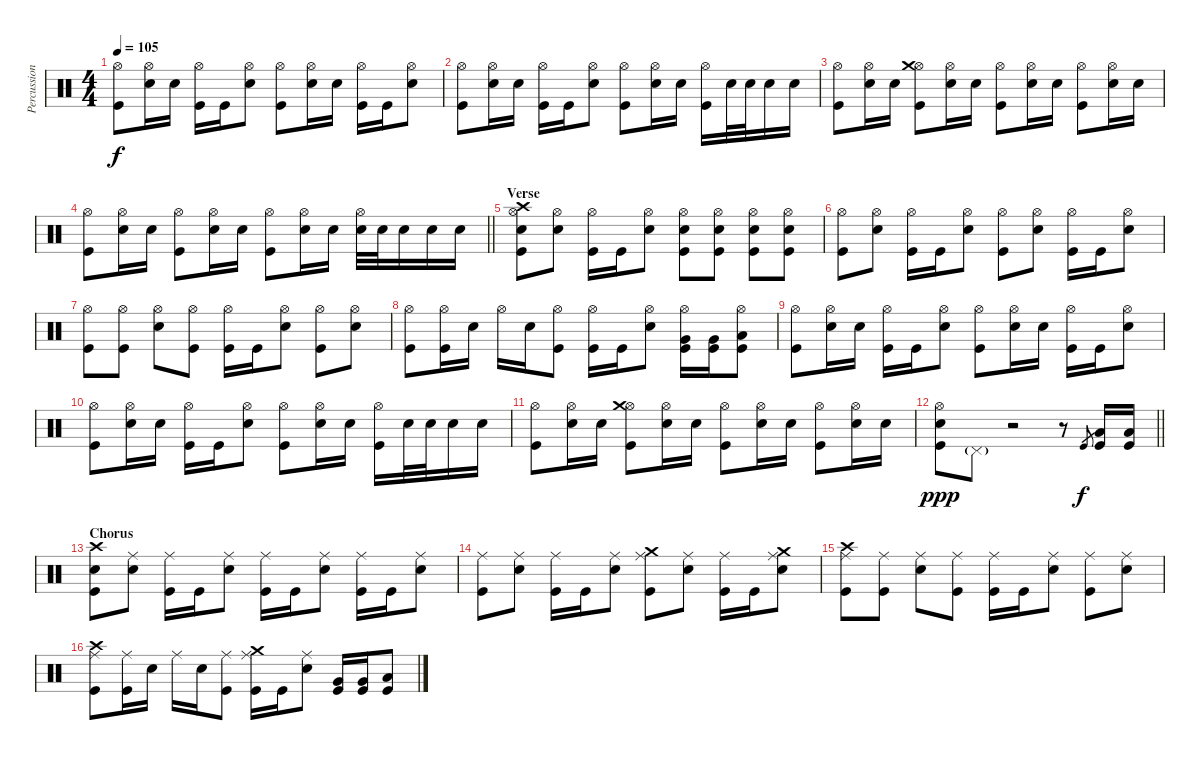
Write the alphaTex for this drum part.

\track ("Percussion" "Percussion") {instrument percussion}
\staff {score}
\articulation defaults
\ts (4 4)
\tempo 105
\clef neutral
\ks c
("Hi-Hat (open)" "Kick (hit)").8{dy f} ("Hi-Hat (open)" "Electric Snare (hit)").16 "Electric Snare (hit)".16 ("Hi-Hat (open)" "Kick (hit)").16 "Kick (hit)".16 ("Hi-Hat (open)" "Electric Snare (hit)").8 ("Hi-Hat (open)" "Kick (hit)").8 ("Hi-Hat (open)" "Electric Snare (hit)").16 "Electric Snare (hit)".16 ("Hi-Hat (open)" "Kick (hit)").16 "Kick (hit)".16 ("Hi-Hat (open)" "Electric Snare (hit)").8 |
("Hi-Hat (open)" "Kick (hit)").8 ("Hi-Hat (open)" "Electric Snare (hit)").16 "Electric Snare (hit)".16 ("Hi-Hat (open)" "Kick (hit)").16 "Kick (hit)".16 ("Hi-Hat (open)" "Electric Snare (hit)").8 ("Hi-Hat (open)" "Kick (hit)").8 ("Hi-Hat (open)" "Electric Snare (hit)").16 "Electric Snare (hit)".16 ("Hi-Hat (open)" "Kick (hit)").16 "Electric Snare (hit)".32 "Electric Snare (hit)".32 "Electric Snare (hit)".16 "Electric Snare (hit)".16 |
("Hi-Hat (open)" "Kick (hit)").8 ("Hi-Hat (open)" "Electric Snare (hit)").16 "Electric Snare (hit)".16 ("Hi-Hat (open)" "Kick (hit)" "Crash medium (hit)").8 ("Hi-Hat (open)" "Electric Snare (hit)").16 "Electric Snare (hit)".16 ("Hi-Hat (open)" "Kick (hit)").8 ("Hi-Hat (open)" "Electric Snare (hit)").16 "Electric Snare (hit)".16 ("Hi-Hat (open)" "Kick (hit)").8 ("Hi-Hat (open)" "Electric Snare (hit)").16 "Electric Snare (hit)".16 |
\barLineRight lightlight
("Hi-Hat (open)" "Kick (hit)").8 ("Hi-Hat (open)" "Electric Snare (hit)").16 "Electric Snare (hit)".16 ("Hi-Hat (open)" "Kick (hit)").8 ("Hi-Hat (open)" "Electric Snare (hit)").16 "Electric Snare (hit)".16 ("Hi-Hat (open)" "Kick (hit)").8 ("Hi-Hat (open)" "Electric Snare (hit)").16 "Electric Snare (hit)".16 ("Hi-Hat (open)" "Electric Snare (hit)").32 "Electric Snare (hit)".32 "Electric Snare (hit)".16 "Electric Snare (hit)".16 "Electric Snare (hit)".16 |
\section ("" "Verse")
("Hi-Hat (open)" "Electric Snare (hit)" "Kick (hit)" "Crash high (hit)").8 ("Hi-Hat (open)" "Electric Snare (hit)").8 ("Hi-Hat (open)" "Kick (hit)").16 "Kick (hit)".16 ("Hi-Hat (open)" "Electric Snare (hit)").8 ("Hi-Hat (open)" "Electric Snare (hit)" "Kick (hit)").8 ("Hi-Hat (open)" "Electric Snare (hit)" "Kick (hit)").8 ("Hi-Hat (open)" "Electric Snare (hit)" "Kick (hit)").8 ("Hi-Hat (open)" "Electric Snare (hit)" "Kick (hit)").8 |
("Hi-Hat (open)" "Kick (hit)").8 ("Hi-Hat (open)" "Electric Snare (hit)").8 ("Hi-Hat (open)" "Kick (hit)").16 "Kick (hit)".16 ("Hi-Hat (open)" "Electric Snare (hit)").8 ("Hi-Hat (open)" "Kick (hit)").8 ("Hi-Hat (open)" "Electric Snare (hit)").8 ("Hi-Hat (open)" "Kick (hit)").16 "Kick (hit)".16 ("Hi-Hat (open)" "Electric Snare (hit)").8 |
("Hi-Hat (open)" "Kick (hit)").8 ("Hi-Hat (open)" "Kick (hit)").8 ("Hi-Hat (open)" "Electric Snare (hit)").8 ("Hi-Hat (open)" "Kick (hit)").8 ("Hi-Hat (open)" "Kick (hit)").16 "Kick (hit)".16 ("Hi-Hat (open)" "Electric Snare (hit)").8 ("Hi-Hat (open)" "Kick (hit)").8 ("Hi-Hat (open)" "Electric Snare (hit)").8 |
("Hi-Hat (open)" "Kick (hit)").8 ("Hi-Hat (open)" "Kick (hit)").16 "Electric Snare (hit)".16 "Hi-Hat (open)".16 "Electric Snare (hit)".16 ("Hi-Hat (open)" "Kick (hit)").8 ("Hi-Hat (open)" "Kick (hit)").16 "Kick (hit)".16 ("Hi-Hat (open)" "Electric Snare (hit)").8 ("Hi-Hat (open)" "Kick (hit)" "Very Low Tom (hit)").16 ("Kick (hit)" "Very Low Tom (hit)").16 ("Hi-Hat (open)" "Kick (hit)" "Low Floor Tom (hit)").8 |
("Hi-Hat (open)" "Kick (hit)").8 ("Hi-Hat (open)" "Electric Snare (hit)").16 "Electric Snare (hit)".16 ("Hi-Hat (open)" "Kick (hit)").16 "Kick (hit)".16 ("Hi-Hat (open)" "Electric Snare (hit)").8 ("Hi-Hat (open)" "Kick (hit)").8 ("Hi-Hat (open)" "Electric Snare (hit)").16 "Electric Snare (hit)".16 ("Hi-Hat (open)" "Kick (hit)").16 "Kick (hit)".16 ("Hi-Hat (open)" "Electric Snare (hit)").8 |
("Hi-Hat (open)" "Kick (hit)").8 ("Hi-Hat (open)" "Electric Snare (hit)").16 "Electric Snare (hit)".16 ("Hi-Hat (open)" "Kick (hit)").16 "Kick (hit)".16 ("Hi-Hat (open)" "Electric Snare (hit)").8 ("Hi-Hat (open)" "Kick (hit)").8 ("Hi-Hat (open)" "Electric Snare (hit)").16 "Electric Snare (hit)".16 ("Hi-Hat (open)" "Kick (hit)").16 "Electric Snare (hit)".32 "Electric Snare (hit)".32 "Electric Snare (hit)".16 "Electric Snare (hit)".16 |
("Hi-Hat (open)" "Kick (hit)").8 ("Hi-Hat (open)" "Electric Snare (hit)").16 "Electric Snare (hit)".16 ("Hi-Hat (open)" "Kick (hit)" "Crash medium (hit)").8 ("Hi-Hat (open)" "Electric Snare (hit)").16 "Electric Snare (hit)".16 ("Hi-Hat (open)" "Kick (hit)").8 ("Hi-Hat (open)" "Electric Snare (hit)").16 "Electric Snare (hit)".16 ("Hi-Hat (open)" "Kick (hit)").8 ("Hi-Hat (open)" "Electric Snare (hit)").16 "Electric Snare (hit)".16 |
\barLineRight lightlight
("Hi-Hat (open)" "Electric Snare (hit)" "Kick (hit)").8{dy ppp} "Pedal Hi-Hat (hit)"{g}.8 r.2 r.8 "Kick (hit)".8{gr dy f} ("Kick (hit)" "Low Floor Tom (hit)").16 ("Kick (hit)" "Low Floor Tom (hit)").16 |
\section ("" "Chorus")
("Electric Snare (hit)" "Kick (hit)" "Crash high (hit)").8 ("Electric Snare (hit)" "Ride (middle)").8 ("Kick (hit)" "Ride (middle)").16 "Kick (hit)".16 ("Electric Snare (hit)" "Ride (middle)").8 ("Kick (hit)" "Ride (middle)").16 "Kick (hit)".16 ("Electric Snare (hit)" "Ride (middle)").8 ("Kick (hit)" "Ride (middle)").16 "Kick (hit)".16 ("Electric Snare (hit)" "Ride (middle)").8 |
("Kick (hit)" "Ride (middle)").8 ("Electric Snare (hit)" "Ride (middle)").8 ("Kick (hit)" "Ride (middle)").16 "Kick (hit)".16 ("Electric Snare (hit)" "Ride (middle)").8 ("Kick (hit)" "Ride (middle)" "Crash medium (hit)").8 ("Electric Snare (hit)" "Ride (middle)").8 ("Kick (hit)" "Ride (middle)").16 "Kick (hit)".16 ("Electric Snare (hit)" "Ride (middle)" "Crash medium (hit)").8 |
("Kick (hit)" "Ride (middle)" "Crash high (hit)").8 ("Kick (hit)" "Ride (middle)").8 ("Electric Snare (hit)" "Ride (middle)").8 ("Kick (hit)" "Ride (middle)").8 ("Kick (hit)" "Ride (middle)").16 "Kick (hit)".16 ("Electric Snare (hit)" "Ride (middle)").8 ("Kick (hit)" "Ride (middle)").8 ("Electric Snare (hit)" "Ride (middle)").8 |
("Kick (hit)" "Ride (middle)" "Crash high (hit)").8 ("Kick (hit)" "Ride (middle)").16 "Electric Snare (hit)".16 "Ride (middle)".16 "Electric Snare (hit)".16 ("Kick (hit)" "Ride (middle)").8 ("Kick (hit)" "Ride (middle)" "Crash medium (hit)").16 "Kick (hit)".16 ("Electric Snare (hit)" "Ride (middle)").8 ("Kick (hit)" "Very Low Tom (hit)").16 ("Kick (hit)" "Very Low Tom (hit)").16 ("Kick (hit)" "Low Floor Tom (hit)").8
